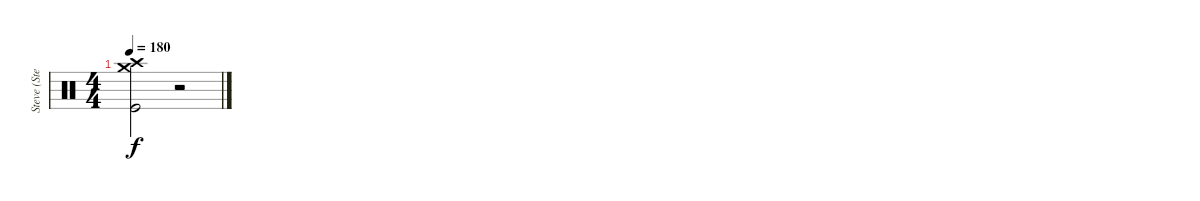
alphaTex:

\track ("Steve (Stevo32) - Drums" "Steve (Ste") {instrument percussion}
\staff {score}
\articulation defaults
\ts (4 4)
\tempo 180
\clef neutral
\ks c
("Crash high (hit)" "Crash medium (hit)" "Kick (hit)").2{dy f} r.2
